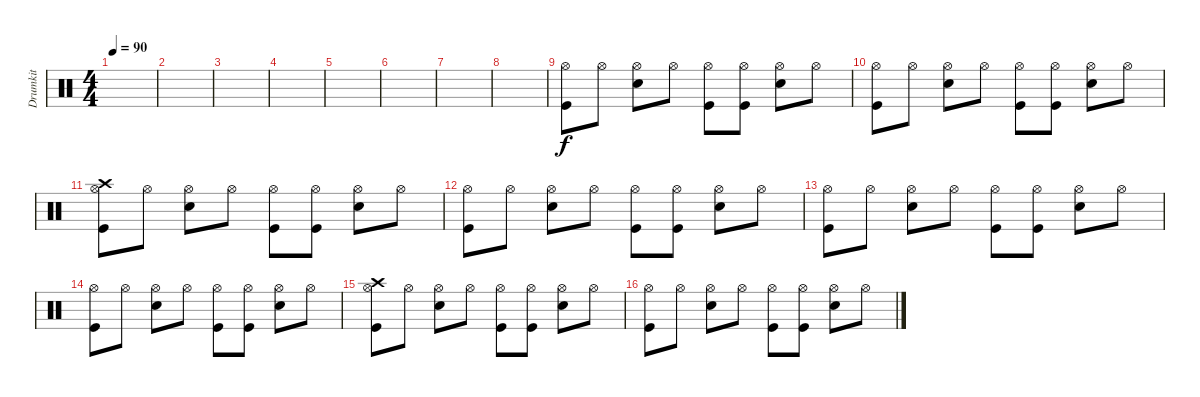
\track ("Drumkit" "Drumkit") {instrument percussion}
\staff {score}
\articulation defaults
\ts (4 4)
\tempo 90
\clef neutral
\ks c
|
|
|
|
|
|
|
|
("Hi-Hat (open)" "Kick (hit)").8 "Hi-Hat (open)".8 ("Hi-Hat (open)" "Snare (hit) 2").8 "Hi-Hat (open)".8 ("Hi-Hat (open)" "Kick (hit)").8 ("Hi-Hat (open)" "Kick (hit)").8 ("Hi-Hat (open)" "Snare (hit) 2").8 "Hi-Hat (open)".8 |
("Hi-Hat (open)" "Kick (hit)").8 "Hi-Hat (open)".8 ("Hi-Hat (open)" "Snare (hit) 2").8 "Hi-Hat (open)".8 ("Hi-Hat (open)" "Kick (hit)").8 ("Hi-Hat (open)" "Kick (hit)").8 ("Hi-Hat (open)" "Snare (hit) 2").8 "Hi-Hat (open)".8 |
("Crash high (hit)" "Hi-Hat (open)" "Kick (hit)").8 "Hi-Hat (open)".8 ("Hi-Hat (open)" "Snare (hit) 2").8 "Hi-Hat (open)".8 ("Hi-Hat (open)" "Kick (hit)").8 ("Hi-Hat (open)" "Kick (hit)").8 ("Hi-Hat (open)" "Snare (hit) 2").8 "Hi-Hat (open)".8 |
("Hi-Hat (open)" "Kick (hit)").8 "Hi-Hat (open)".8 ("Hi-Hat (open)" "Snare (hit) 2").8 "Hi-Hat (open)".8 ("Hi-Hat (open)" "Kick (hit)").8 ("Hi-Hat (open)" "Kick (hit)").8 ("Hi-Hat (open)" "Snare (hit) 2").8 "Hi-Hat (open)".8 |
("Hi-Hat (open)" "Kick (hit)").8 "Hi-Hat (open)".8 ("Hi-Hat (open)" "Snare (hit) 2").8 "Hi-Hat (open)".8 ("Hi-Hat (open)" "Kick (hit)").8 ("Hi-Hat (open)" "Kick (hit)").8 ("Hi-Hat (open)" "Snare (hit) 2").8 "Hi-Hat (open)".8 |
("Hi-Hat (open)" "Kick (hit)").8 "Hi-Hat (open)".8 ("Hi-Hat (open)" "Snare (hit) 2").8 "Hi-Hat (open)".8 ("Hi-Hat (open)" "Kick (hit)").8 ("Hi-Hat (open)" "Kick (hit)").8 ("Hi-Hat (open)" "Snare (hit) 2").8 "Hi-Hat (open)".8 |
("Crash high (hit)" "Hi-Hat (open)" "Kick (hit)").8 "Hi-Hat (open)".8 ("Hi-Hat (open)" "Snare (hit) 2").8 "Hi-Hat (open)".8 ("Hi-Hat (open)" "Kick (hit)").8 ("Hi-Hat (open)" "Kick (hit)").8 ("Hi-Hat (open)" "Snare (hit) 2").8 "Hi-Hat (open)".8 |
("Hi-Hat (open)" "Kick (hit)").8 "Hi-Hat (open)".8 ("Hi-Hat (open)" "Snare (hit) 2").8 "Hi-Hat (open)".8 ("Hi-Hat (open)" "Kick (hit)").8 ("Hi-Hat (open)" "Kick (hit)").8 ("Hi-Hat (open)" "Snare (hit) 2").8 "Hi-Hat (open)".8
